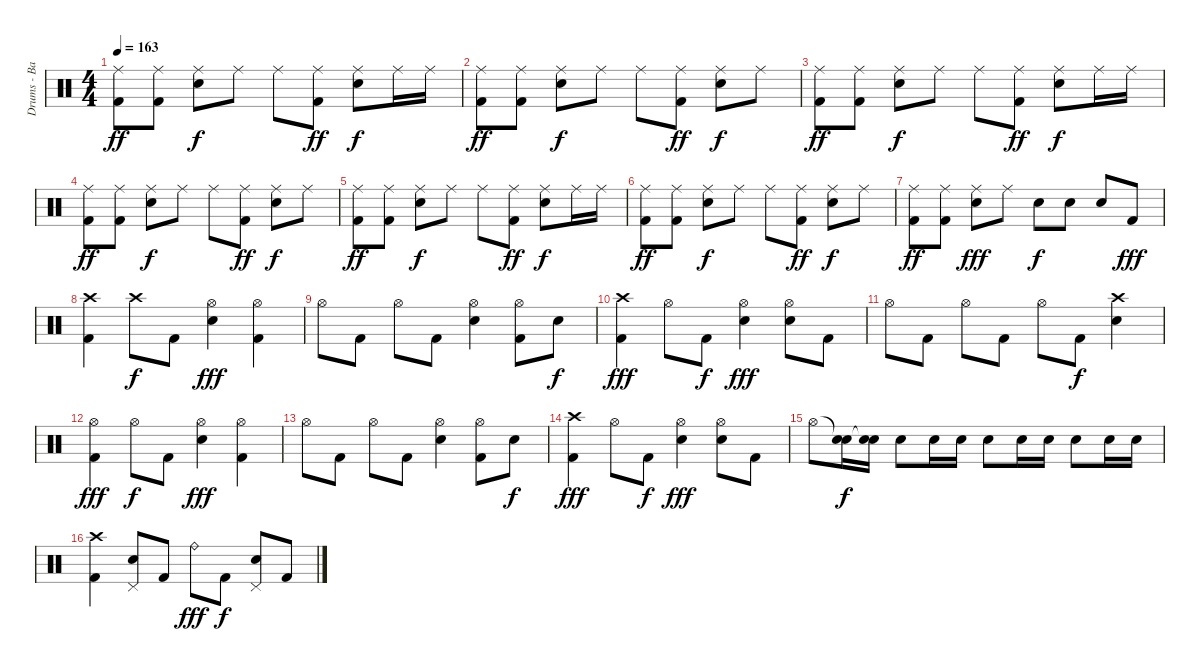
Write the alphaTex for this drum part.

\track ("Drums - Bateria" "Drums - Ba") {instrument percussion}
\staff {score}
\articulation defaults
\ts (4 4)
\tempo 163
\clef neutral
\ks c
("Ride (middle)" "Kick (hit) 2").8{dy ff} ("Ride (middle)" "Kick (hit) 2").8 ("Ride (middle)" "Electric Snare (hit)").8{dy f} "Ride (middle)".8 "Ride (middle)".8 ("Ride (middle)" "Kick (hit) 2").8{dy ff} ("Ride (middle)" "Electric Snare (hit)").8{dy f} "Ride (middle)".16 "Ride (middle)".16 |
("Ride (middle)" "Kick (hit) 2").8{dy ff} ("Ride (middle)" "Kick (hit) 2").8 ("Ride (middle)" "Electric Snare (hit)").8{dy f} "Ride (middle)".8 "Ride (middle)".8 ("Ride (middle)" "Kick (hit) 2").8{dy ff} ("Ride (middle)" "Electric Snare (hit)").8{dy f} "Ride (middle)".8 |
("Ride (middle)" "Kick (hit) 2").8{dy ff} ("Ride (middle)" "Kick (hit) 2").8 ("Ride (middle)" "Electric Snare (hit)").8{dy f} "Ride (middle)".8 "Ride (middle)".8 ("Ride (middle)" "Kick (hit) 2").8{dy ff} ("Ride (middle)" "Electric Snare (hit)").8{dy f} "Ride (middle)".16 "Ride (middle)".16 |
("Ride (middle)" "Kick (hit) 2").8{dy ff} ("Ride (middle)" "Kick (hit) 2").8 ("Ride (middle)" "Electric Snare (hit)").8{dy f} "Ride (middle)".8 "Ride (middle)".8 ("Ride (middle)" "Kick (hit) 2").8{dy ff} ("Ride (middle)" "Electric Snare (hit)").8{dy f} "Ride (middle)".8 |
("Ride (middle)" "Kick (hit) 2").8{dy ff} ("Ride (middle)" "Kick (hit) 2").8 ("Ride (middle)" "Electric Snare (hit)").8{dy f} "Ride (middle)".8 "Ride (middle)".8 ("Ride (middle)" "Kick (hit) 2").8{dy ff} ("Ride (middle)" "Electric Snare (hit)").8{dy f} "Ride (middle)".16 "Ride (middle)".16 |
("Ride (middle)" "Kick (hit) 2").8{dy ff} ("Ride (middle)" "Kick (hit) 2").8 ("Ride (middle)" "Electric Snare (hit)").8{dy f} "Ride (middle)".8 "Ride (middle)".8 ("Ride (middle)" "Kick (hit) 2").8{dy ff} ("Ride (middle)" "Electric Snare (hit)").8{dy f} "Ride (middle)".8 |
("Ride (middle)" "Kick (hit) 2").8{dy ff} ("Ride (middle)" "Kick (hit) 2").8 ("Ride (middle)" "Electric Snare (hit)").8{dy fff} "Ride (middle)".8 "Electric Snare (hit)".8{dy f} "Electric Snare (hit)".8 "Electric Snare (hit)".8 "Kick (hit) 2".8{dy fff} |
("Crash high (hit)" "Kick (hit) 2").4 "Crash high (hit)".8{dy f} "Kick (hit) 2".8 ("Hi-Hat (open)" "Electric Snare (hit)").4{dy fff} ("Hi-Hat (open)" "Kick (hit) 2").4 |
"Hi-Hat (open)".8 "Kick (hit) 2".8 "Hi-Hat (open)".8 "Kick (hit) 2".8 ("Hi-Hat (open)" "Electric Snare (hit)").4 ("Hi-Hat (open)" "Kick (hit) 2").8 "Electric Snare (hit)".8{dy f} |
("Crash high (hit)" "Kick (hit) 2").4{dy fff} "Hi-Hat (open)".8 "Kick (hit) 2".8{dy f} ("Hi-Hat (open)" "Electric Snare (hit)").4{dy fff} ("Hi-Hat (open)" "Electric Snare (hit)").8 "Kick (hit) 2".8 |
"Hi-Hat (open)".8 "Kick (hit) 2".8 "Hi-Hat (open)".8 "Kick (hit) 2".8 "Hi-Hat (open)".8 "Kick (hit) 2".8{dy f} ("Crash high (hit)" "Electric Snare (hit)").4 |
("Hi-Hat (open)" "Kick (hit) 2").4{dy fff} "Hi-Hat (open)".8{dy f} "Kick (hit) 2".8 ("Hi-Hat (open)" "Electric Snare (hit)").4{dy fff} ("Hi-Hat (open)" "Kick (hit) 2").4 |
"Hi-Hat (open)".8 "Kick (hit) 2".8 "Hi-Hat (open)".8 "Kick (hit) 2".8 ("Hi-Hat (open)" "Electric Snare (hit)").4 ("Hi-Hat (open)" "Kick (hit) 2").8 "Electric Snare (hit)".8{dy f} |
("Crash high (hit)" "Kick (hit) 2").4{dy fff} "Hi-Hat (open)".8 "Kick (hit) 2".8{dy f} ("Hi-Hat (open)" "Electric Snare (hit)").4{dy fff} ("Hi-Hat (open)" "Electric Snare (hit)").8 "Kick (hit) 2".8 |
"Hi-Hat (open)".8 ("Snare (hit)"{t} "Electric Snare (hit)").16{dy f} ("Snare (hit)"{t} "Electric Snare (hit)").16 "Electric Snare (hit)".8 "Electric Snare (hit)".16 "Electric Snare (hit)".16 "Electric Snare (hit)".8 "Electric Snare (hit)".16 "Electric Snare (hit)".16 "Electric Snare (hit)".8 "Electric Snare (hit)".16 "Electric Snare (hit)".16 |
("Crash high (hit)" "Kick (hit) 2").4 ("Pedal Hi-Hat (hit)" "Electric Snare (hit)").8 "Kick (hit) 2".8 "Ride (bell)".8{dy fff} "Kick (hit) 2".8{dy f} ("Pedal Hi-Hat (hit)" "Electric Snare (hit)").8 "Kick (hit) 2".8
